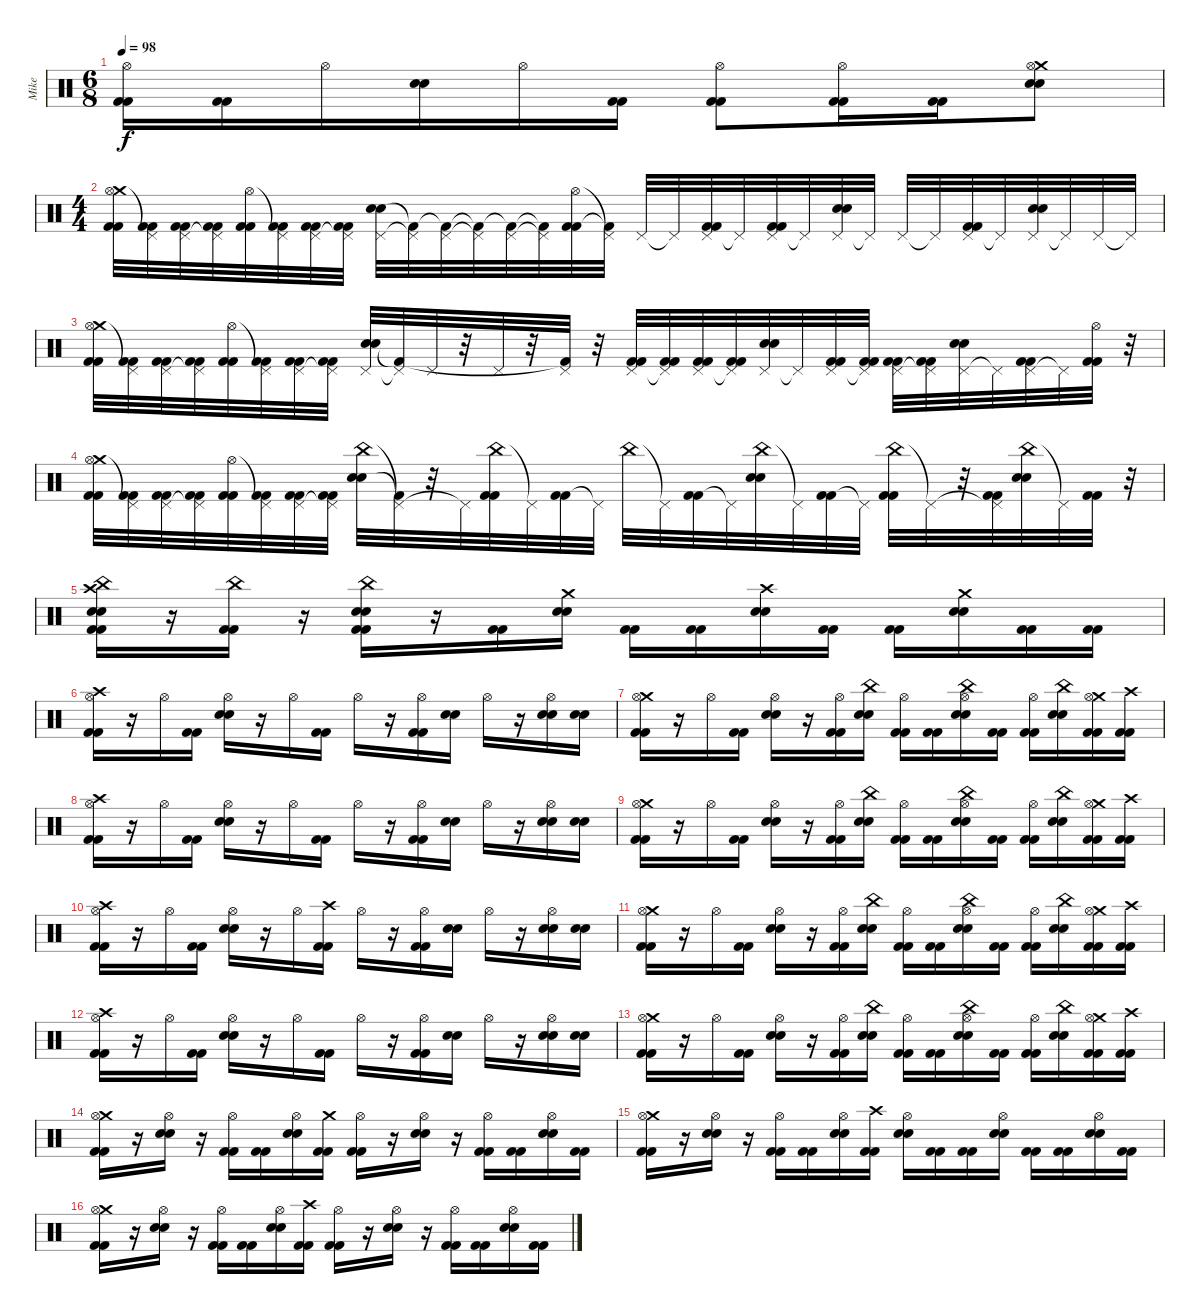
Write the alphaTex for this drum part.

\track ("Mike" "Mike") {instrument percussion}
\staff {score}
\articulation defaults
\ts (6 8)
\tempo 98
\clef neutral
\ks c
("Hi-Hat (open)" "Kick (hit) 2" "Kick (hit) 2").16{dy f} ("Kick (hit) 2" "Kick (hit) 2").16 "Hi-Hat (open)".16 ("Electric Snare (hit)" "Electric Snare (hit)").16 "Hi-Hat (open)".16 ("Kick (hit) 2" "Kick (hit) 2").16 ("Hi-Hat (open)" "Kick (hit) 2" "Kick (hit) 2").8 ("Hi-Hat (open)" "Kick (hit) 2" "Kick (hit) 2").16 ("Kick (hit) 2" "Kick (hit) 2").16 ("Crash medium (hit)" "Hi-Hat (open)" "Electric Snare (hit)" "Electric Snare (hit)").8 |
\ts (4 4)
("Crash medium (hit)" "Hi-Hat (open)" "Kick (hit) 2" "Kick (hit) 2").32 ("Pedal Hi-Hat (hit)"{t} "Kick (hit) 2" "Kick (hit) 2").32 ("Pedal Hi-Hat (hit)" "Kick (hit) 2" "Kick (hit) 2").32 ("Pedal Hi-Hat (hit)"{t} "Kick (hit) 2" "Kick (hit) 2").32 ("Hi-Hat (open)" "Kick (hit) 2" "Kick (hit) 2").32 ("Pedal Hi-Hat (hit)"{t} "Kick (hit) 2" "Kick (hit) 2").32 ("Pedal Hi-Hat (hit)" "Kick (hit) 2" "Kick (hit) 2").32 ("Pedal Hi-Hat (hit)"{t} "Kick (hit) 2" "Kick (hit) 2").32 ("Pedal Hi-Hat (hit)" "Electric Snare (hit)" "Electric Snare (hit)").32 ("Pedal Hi-Hat (hit)"{t} "Kick (hit) 2"{t}).32 ("Pedal Hi-Hat (hit)" "Kick (hit) 2"{t}).32 ("Pedal Hi-Hat (hit)"{t} "Kick (hit) 2"{t}).32 ("Pedal Hi-Hat (hit)" "Kick (hit) 2"{t}).32 ("Pedal Hi-Hat (hit)"{t} "Kick (hit) 2"{t}).32 ("Hi-Hat (open)" "Kick (hit) 2" "Kick (hit) 2").32 ("Pedal Hi-Hat (hit)"{t} "Kick (hit) 2"{t}).32 "Pedal Hi-Hat (hit)".32 "Pedal Hi-Hat (hit)"{t}.32 ("Pedal Hi-Hat (hit)" "Kick (hit) 2" "Kick (hit) 2").32 "Pedal Hi-Hat (hit)"{t}.32 ("Pedal Hi-Hat (hit)" "Kick (hit) 2" "Kick (hit) 2").32 "Pedal Hi-Hat (hit)"{t}.32 ("Pedal Hi-Hat (hit)" "Electric Snare (hit)" "Electric Snare (hit)").32 "Pedal Hi-Hat (hit)"{t}.32 "Pedal Hi-Hat (hit)".32 "Pedal Hi-Hat (hit)"{t}.32 ("Pedal Hi-Hat (hit)" "Kick (hit) 2" "Kick (hit) 2").32 "Pedal Hi-Hat (hit)"{t}.32 ("Pedal Hi-Hat (hit)" "Electric Snare (hit)" "Electric Snare (hit)").32 "Pedal Hi-Hat (hit)"{t}.32 "Pedal Hi-Hat (hit)".32 "Pedal Hi-Hat (hit)"{t}.32 |
("Crash medium (hit)" "Hi-Hat (open)" "Kick (hit) 2" "Kick (hit) 2").32 ("Pedal Hi-Hat (hit)"{t} "Kick (hit) 2" "Kick (hit) 2").32 ("Pedal Hi-Hat (hit)" "Kick (hit) 2" "Kick (hit) 2").32 ("Pedal Hi-Hat (hit)"{t} "Kick (hit) 2" "Kick (hit) 2").32 ("Hi-Hat (open)" "Kick (hit) 2" "Kick (hit) 2").32 ("Pedal Hi-Hat (hit)"{t} "Kick (hit) 2" "Kick (hit) 2").32 ("Pedal Hi-Hat (hit)" "Kick (hit) 2" "Kick (hit) 2").32 ("Pedal Hi-Hat (hit)"{t} "Kick (hit) 2" "Kick (hit) 2").32 ("Pedal Hi-Hat (hit)" "Electric Snare (hit)" "Electric Snare (hit)").32 ("Pedal Hi-Hat (hit)"{t} "Kick (hit) 2"{t}).32 "Pedal Hi-Hat (hit)".32 r.32 "Pedal Hi-Hat (hit)".32 r.32 ("Pedal Hi-Hat (hit)" "Kick (hit) 2"{t}).32 r.32 ("Pedal Hi-Hat (hit)" "Kick (hit) 2" "Kick (hit) 2").32 ("Pedal Hi-Hat (hit)"{t} "Kick (hit) 2" "Kick (hit) 2").32 ("Pedal Hi-Hat (hit)" "Kick (hit) 2" "Kick (hit) 2").32 ("Pedal Hi-Hat (hit)"{t} "Kick (hit) 2" "Kick (hit) 2").32 ("Pedal Hi-Hat (hit)" "Electric Snare (hit)" "Electric Snare (hit)").32 "Pedal Hi-Hat (hit)"{t}.32 ("Pedal Hi-Hat (hit)" "Kick (hit) 2" "Kick (hit) 2").32 ("Pedal Hi-Hat (hit)"{t} "Kick (hit) 2" "Kick (hit) 2").32 ("Pedal Hi-Hat (hit)" "Kick (hit) 2" "Kick (hit) 2").32 ("Pedal Hi-Hat (hit)"{t} "Kick (hit) 2" "Kick (hit) 2").32 ("Pedal Hi-Hat (hit)" "Electric Snare (hit)" "Electric Snare (hit)").32 "Pedal Hi-Hat (hit)"{t}.32 ("Pedal Hi-Hat (hit)" "Kick (hit) 2" "Kick (hit) 2").32 "Pedal Hi-Hat (hit)"{t}.32 ("Hi-Hat (open)" "Kick (hit) 2" "Kick (hit) 2").32 r.32 |
("Crash medium (hit)" "Hi-Hat (open)" "Kick (hit) 2" "Kick (hit) 2").32 ("Pedal Hi-Hat (hit)"{t} "Kick (hit) 2" "Kick (hit) 2").32 ("Pedal Hi-Hat (hit)" "Kick (hit) 2" "Kick (hit) 2").32 ("Pedal Hi-Hat (hit)"{t} "Kick (hit) 2" "Kick (hit) 2").32 ("Hi-Hat (open)" "Kick (hit) 2" "Kick (hit) 2").32 ("Pedal Hi-Hat (hit)"{t} "Kick (hit) 2" "Kick (hit) 2").32 ("Pedal Hi-Hat (hit)" "Kick (hit) 2" "Kick (hit) 2").32 ("Pedal Hi-Hat (hit)"{t} "Kick (hit) 2" "Kick (hit) 2").32 ("China (hit)" "Electric Snare (hit)" "Electric Snare (hit)").32 ("Pedal Hi-Hat (hit)"{t} "Kick (hit) 2"{t}).32 r.32 "Pedal Hi-Hat (hit)"{t}.32 ("China (hit)" "Kick (hit) 2" "Kick (hit) 2").32 "Pedal Hi-Hat (hit)"{t}.32 ("Kick (hit) 2" "Kick (hit) 2").32 "Pedal Hi-Hat (hit)"{t}.32 "China (hit)".32 "Pedal Hi-Hat (hit)"{t}.32 ("Kick (hit) 2" "Kick (hit) 2").32 "Pedal Hi-Hat (hit)"{t}.32 ("China (hit)" "Electric Snare (hit)" "Electric Snare (hit)").32 "Pedal Hi-Hat (hit)"{t}.32 ("Kick (hit) 2" "Kick (hit) 2").32 "Pedal Hi-Hat (hit)"{t}.32 ("China (hit)" "Kick (hit) 2" "Kick (hit) 2").32 "Pedal Hi-Hat (hit)"{t}.32 r.32 ("Pedal Hi-Hat (hit)"{t} "Kick (hit) 2" "Kick (hit) 2").32 ("China (hit)" "Electric Snare (hit)" "Electric Snare (hit)").32 "Pedal Hi-Hat (hit)"{t}.32 ("Kick (hit) 2" "Kick (hit) 2").32 r.32 |
("China (hit)" "Crash high (hit)" "Electric Snare (hit)" "Electric Snare (hit)" "Kick (hit) 2" "Kick (hit) 2").16 r.16 ("China (hit)" "Kick (hit) 2" "Kick (hit) 2").16 r.16 ("China (hit)" "Electric Snare (hit)" "Electric Snare (hit)" "Kick (hit) 2" "Kick (hit) 2").16 r.16 ("Kick (hit) 2" "Kick (hit) 2").16 ("Crash medium (hit)" "Electric Snare (hit)" "Electric Snare (hit)").16 ("Kick (hit) 2" "Kick (hit) 2").16 ("Kick (hit) 2" "Kick (hit) 2").16 ("Crash high (hit)" "Electric Snare (hit)" "Electric Snare (hit)").16 ("Kick (hit) 2" "Kick (hit) 2").16 ("Kick (hit) 2" "Kick (hit) 2").16 ("Crash medium (hit)" "Electric Snare (hit)" "Electric Snare (hit)").16 ("Kick (hit) 2" "Kick (hit) 2").16 ("Kick (hit) 2" "Kick (hit) 2").16 |
("Crash high (hit)" "Hi-Hat (open)" "Kick (hit) 2" "Kick (hit) 2").16 r.16 "Hi-Hat (open)".16 ("Kick (hit) 2" "Kick (hit) 2").16 ("Hi-Hat (open)" "Electric Snare (hit)" "Electric Snare (hit)").16 r.16 "Hi-Hat (open)".16 ("Kick (hit) 2" "Kick (hit) 2").16 "Hi-Hat (open)".16 r.16 ("Hi-Hat (open)" "Kick (hit) 2" "Kick (hit) 2").16 ("Electric Snare (hit)" "Electric Snare (hit)").16 "Hi-Hat (open)".16 r.16 ("Hi-Hat (open)" "Electric Snare (hit)" "Electric Snare (hit)").16 ("Electric Snare (hit)" "Electric Snare (hit)").16 |
("Crash medium (hit)" "Hi-Hat (open)" "Kick (hit) 2" "Kick (hit) 2").16 r.16 "Hi-Hat (open)".16 ("Kick (hit) 2" "Kick (hit) 2").16 ("Hi-Hat (open)" "Electric Snare (hit)" "Electric Snare (hit)").16 r.16 ("Hi-Hat (open)" "Kick (hit) 2" "Kick (hit) 2").16 ("China (hit)" "Electric Snare (hit)" "Electric Snare (hit)").16 ("Hi-Hat (open)" "Kick (hit) 2" "Kick (hit) 2").16 ("Kick (hit) 2" "Kick (hit) 2").16 ("China (hit)" "Hi-Hat (open)" "Electric Snare (hit)" "Electric Snare (hit)").16 ("Kick (hit) 2" "Kick (hit) 2").16 ("Hi-Hat (open)" "Kick (hit) 2" "Kick (hit) 2").16 ("China (hit)" "Electric Snare (hit)" "Electric Snare (hit)").16 ("Crash medium (hit)" "Hi-Hat (open)" "Kick (hit) 2" "Kick (hit) 2").16 ("Crash high (hit)" "Kick (hit) 2" "Kick (hit) 2").16 |
("Crash high (hit)" "Hi-Hat (open)" "Kick (hit) 2" "Kick (hit) 2").16 r.16 "Hi-Hat (open)".16 ("Kick (hit) 2" "Kick (hit) 2").16 ("Hi-Hat (open)" "Electric Snare (hit)" "Electric Snare (hit)").16 r.16 "Hi-Hat (open)".16 ("Kick (hit) 2" "Kick (hit) 2").16 "Hi-Hat (open)".16 r.16 ("Hi-Hat (open)" "Kick (hit) 2" "Kick (hit) 2").16 ("Electric Snare (hit)" "Electric Snare (hit)").16 "Hi-Hat (open)".16 r.16 ("Hi-Hat (open)" "Electric Snare (hit)" "Electric Snare (hit)").16 ("Electric Snare (hit)" "Electric Snare (hit)").16 |
("Crash medium (hit)" "Hi-Hat (open)" "Kick (hit) 2" "Kick (hit) 2").16 r.16 "Hi-Hat (open)".16 ("Kick (hit) 2" "Kick (hit) 2").16 ("Hi-Hat (open)" "Electric Snare (hit)" "Electric Snare (hit)").16 r.16 ("Hi-Hat (open)" "Kick (hit) 2" "Kick (hit) 2").16 ("China (hit)" "Electric Snare (hit)" "Electric Snare (hit)").16 ("Hi-Hat (open)" "Kick (hit) 2" "Kick (hit) 2").16 ("Kick (hit) 2" "Kick (hit) 2").16 ("China (hit)" "Hi-Hat (open)" "Electric Snare (hit)" "Electric Snare (hit)").16 ("Kick (hit) 2" "Kick (hit) 2").16 ("Hi-Hat (open)" "Kick (hit) 2" "Kick (hit) 2").16 ("China (hit)" "Electric Snare (hit)" "Electric Snare (hit)").16 ("Crash medium (hit)" "Hi-Hat (open)" "Kick (hit) 2" "Kick (hit) 2").16 ("Crash high (hit)" "Kick (hit) 2" "Kick (hit) 2").16 |
("Crash high (hit)" "Hi-Hat (open)" "Kick (hit) 2" "Kick (hit) 2").16 r.16 "Hi-Hat (open)".16 ("Kick (hit) 2" "Kick (hit) 2").16 ("Hi-Hat (open)" "Electric Snare (hit)" "Electric Snare (hit)").16 r.16 "Hi-Hat (open)".16 ("Crash high (hit)" "Kick (hit) 2" "Kick (hit) 2").16 "Hi-Hat (open)".16 r.16 ("Hi-Hat (open)" "Kick (hit) 2" "Kick (hit) 2").16 ("Electric Snare (hit)" "Electric Snare (hit)").16 "Hi-Hat (open)".16 r.16 ("Hi-Hat (open)" "Electric Snare (hit)" "Electric Snare (hit)").16 ("Electric Snare (hit)" "Electric Snare (hit)").16 |
("Crash medium (hit)" "Hi-Hat (open)" "Kick (hit) 2" "Kick (hit) 2").16 r.16 "Hi-Hat (open)".16 ("Kick (hit) 2" "Kick (hit) 2").16 ("Hi-Hat (open)" "Electric Snare (hit)" "Electric Snare (hit)").16 r.16 ("Hi-Hat (open)" "Kick (hit) 2" "Kick (hit) 2").16 ("China (hit)" "Electric Snare (hit)" "Electric Snare (hit)").16 ("Hi-Hat (open)" "Kick (hit) 2" "Kick (hit) 2").16 ("Kick (hit) 2" "Kick (hit) 2").16 ("China (hit)" "Hi-Hat (open)" "Electric Snare (hit)" "Electric Snare (hit)").16 ("Kick (hit) 2" "Kick (hit) 2").16 ("Hi-Hat (open)" "Kick (hit) 2" "Kick (hit) 2").16 ("China (hit)" "Electric Snare (hit)" "Electric Snare (hit)").16 ("Crash medium (hit)" "Hi-Hat (open)" "Kick (hit) 2" "Kick (hit) 2").16 ("Crash high (hit)" "Kick (hit) 2" "Kick (hit) 2").16 |
("Crash high (hit)" "Hi-Hat (open)" "Kick (hit) 2" "Kick (hit) 2").16 r.16 "Hi-Hat (open)".16 ("Kick (hit) 2" "Kick (hit) 2").16 ("Hi-Hat (open)" "Electric Snare (hit)" "Electric Snare (hit)").16 r.16 "Hi-Hat (open)".16 ("Kick (hit) 2" "Kick (hit) 2").16 "Hi-Hat (open)".16 r.16 ("Hi-Hat (open)" "Kick (hit) 2" "Kick (hit) 2").16 ("Electric Snare (hit)" "Electric Snare (hit)").16 "Hi-Hat (open)".16 r.16 ("Hi-Hat (open)" "Electric Snare (hit)" "Electric Snare (hit)").16 ("Electric Snare (hit)" "Electric Snare (hit)").16 |
("Crash medium (hit)" "Hi-Hat (open)" "Kick (hit) 2" "Kick (hit) 2").16 r.16 "Hi-Hat (open)".16 ("Kick (hit) 2" "Kick (hit) 2").16 ("Hi-Hat (open)" "Electric Snare (hit)" "Electric Snare (hit)").16 r.16 ("Hi-Hat (open)" "Kick (hit) 2" "Kick (hit) 2").16 ("China (hit)" "Electric Snare (hit)" "Electric Snare (hit)").16 ("Hi-Hat (open)" "Kick (hit) 2" "Kick (hit) 2").16 ("Kick (hit) 2" "Kick (hit) 2").16 ("China (hit)" "Hi-Hat (open)" "Electric Snare (hit)" "Electric Snare (hit)").16 ("Kick (hit) 2" "Kick (hit) 2").16 ("Hi-Hat (open)" "Kick (hit) 2" "Kick (hit) 2").16 ("China (hit)" "Electric Snare (hit)" "Electric Snare (hit)").16 ("Crash medium (hit)" "Hi-Hat (open)" "Kick (hit) 2" "Kick (hit) 2").16 ("Crash high (hit)" "Kick (hit) 2" "Kick (hit) 2").16 |
("Crash medium (hit)" "Hi-Hat (open)" "Kick (hit) 2" "Kick (hit) 2").16 r.16 ("Hi-Hat (open)" "Electric Snare (hit)" "Electric Snare (hit)").16 r.16 ("Hi-Hat (open)" "Kick (hit) 2" "Kick (hit) 2").16 ("Kick (hit) 2" "Kick (hit) 2").16 ("Hi-Hat (open)" "Electric Snare (hit)" "Electric Snare (hit)").16 ("Crash medium (hit)" "Kick (hit) 2" "Kick (hit) 2").16 ("Hi-Hat (open)" "Kick (hit) 2" "Kick (hit) 2").16 r.16 ("Hi-Hat (open)" "Electric Snare (hit)" "Electric Snare (hit)").16 r.16 ("Hi-Hat (open)" "Kick (hit) 2" "Kick (hit) 2").16 ("Kick (hit) 2" "Kick (hit) 2").16 ("Hi-Hat (open)" "Electric Snare (hit)" "Electric Snare (hit)").16 ("Kick (hit) 2" "Kick (hit) 2").16 |
("Crash medium (hit)" "Hi-Hat (open)" "Kick (hit) 2" "Kick (hit) 2").16 r.16 ("Hi-Hat (open)" "Electric Snare (hit)" "Electric Snare (hit)").16 r.16 ("Hi-Hat (open)" "Kick (hit) 2" "Kick (hit) 2").16 ("Kick (hit) 2" "Kick (hit) 2").16 ("Hi-Hat (open)" "Electric Snare (hit)" "Electric Snare (hit)").16 ("Crash high (hit)" "Kick (hit) 2" "Kick (hit) 2").16 ("Hi-Hat (open)" "Electric Snare (hit)" "Electric Snare (hit)").16 ("Kick (hit) 2" "Kick (hit) 2").16 ("Kick (hit) 2" "Kick (hit) 2").16 ("Hi-Hat (open)" "Electric Snare (hit)" "Electric Snare (hit)").16 ("Kick (hit) 2" "Kick (hit) 2").16 ("Kick (hit) 2" "Kick (hit) 2").16 ("Hi-Hat (open)" "Electric Snare (hit)" "Electric Snare (hit)").16 ("Kick (hit) 2" "Kick (hit) 2").16 |
("Crash medium (hit)" "Hi-Hat (open)" "Kick (hit) 2" "Kick (hit) 2").16 r.16 ("Hi-Hat (open)" "Electric Snare (hit)" "Electric Snare (hit)").16 r.16 ("Hi-Hat (open)" "Kick (hit) 2" "Kick (hit) 2").16 ("Kick (hit) 2" "Kick (hit) 2").16 ("Hi-Hat (open)" "Electric Snare (hit)" "Electric Snare (hit)").16 ("Crash high (hit)" "Kick (hit) 2" "Kick (hit) 2").16 ("Hi-Hat (open)" "Kick (hit) 2" "Kick (hit) 2").16 r.16 ("Hi-Hat (open)" "Electric Snare (hit)" "Electric Snare (hit)").16 r.16 ("Hi-Hat (open)" "Kick (hit) 2" "Kick (hit) 2").16 ("Kick (hit) 2" "Kick (hit) 2").16 ("Hi-Hat (open)" "Electric Snare (hit)" "Electric Snare (hit)").16 ("Kick (hit) 2" "Kick (hit) 2").16
